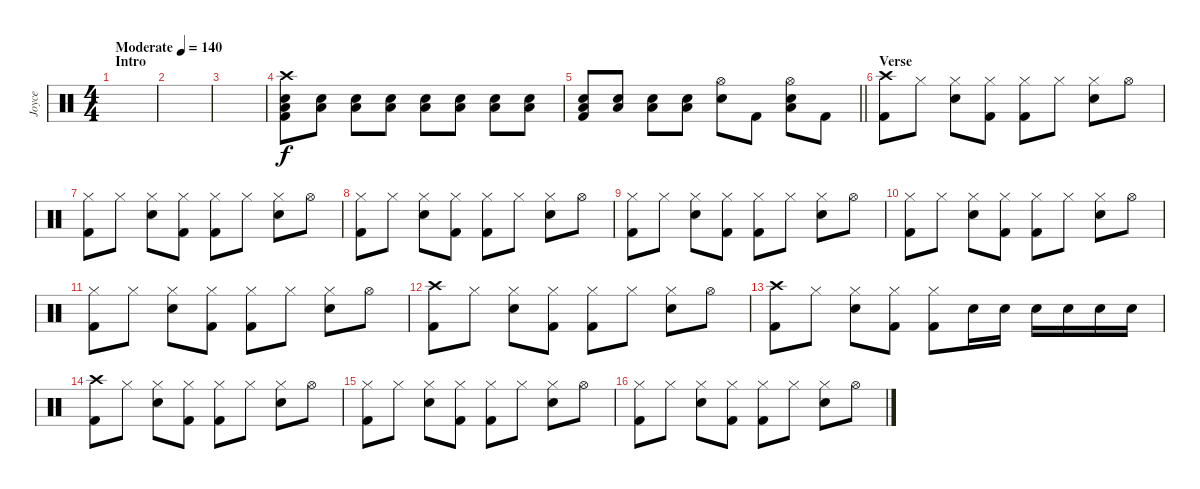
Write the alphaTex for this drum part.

\track ("Joyce" "Joyce") {instrument percussion}
\staff {score}
\articulation defaults
\ts (4 4)
\section ("" "Intro")
\tempo (140 "Moderate")
\clef neutral
\ks c
|
|
|
("Crash high (hit)" "Low Tom (hit)" "Snare (hit) 2" "Kick (hit) 2").8 ("Low Tom (hit)" "Snare (hit) 2").8 ("Low Tom (hit)" "Snare (hit) 2").8 ("Low Tom (hit)" "Snare (hit) 2").8 ("Low Tom (hit)" "Snare (hit) 2").8 ("Low Tom (hit)" "Snare (hit) 2").8 ("Low Tom (hit)" "Snare (hit) 2").8 ("Low Tom (hit)" "Snare (hit) 2").8 |
\barLineRight lightlight
("Low Tom (hit)" "Snare (hit) 2" "Kick (hit) 2").8 ("Low Tom (hit)" "Snare (hit) 2").8 ("Low Tom (hit)" "Snare (hit) 2").8 ("Low Tom (hit)" "Snare (hit) 2").8 ("Hi-Hat (open)" "Snare (hit) 2").8 "Kick (hit) 2".8 ("Hi-Hat (open)" "Low Tom (hit)" "Snare (hit) 2").8 "Kick (hit) 2".8 |
\section ("" "Verse")
("Crash high (hit)" "Kick (hit) 2").8 "Hi-Hat (closed)".8 ("Hi-Hat (closed)" "Snare (hit) 2").8 ("Hi-Hat (closed)" "Kick (hit) 2").8 ("Hi-Hat (closed)" "Kick (hit) 2").8 "Hi-Hat (closed)".8 ("Hi-Hat (closed)" "Snare (hit) 2").8 "Hi-Hat (open)".8 |
("Hi-Hat (closed)" "Kick (hit) 2").8 "Hi-Hat (closed)".8 ("Hi-Hat (closed)" "Snare (hit) 2").8 ("Hi-Hat (closed)" "Kick (hit) 2").8 ("Hi-Hat (closed)" "Kick (hit) 2").8 "Hi-Hat (closed)".8 ("Hi-Hat (closed)" "Snare (hit) 2").8 "Hi-Hat (open)".8 |
("Hi-Hat (closed)" "Kick (hit) 2").8 "Hi-Hat (closed)".8 ("Hi-Hat (closed)" "Snare (hit) 2").8 ("Hi-Hat (closed)" "Kick (hit) 2").8 ("Hi-Hat (closed)" "Kick (hit) 2").8 "Hi-Hat (closed)".8 ("Hi-Hat (closed)" "Snare (hit) 2").8 "Hi-Hat (open)".8 |
("Hi-Hat (closed)" "Kick (hit) 2").8 "Hi-Hat (closed)".8 ("Hi-Hat (closed)" "Snare (hit) 2").8 ("Hi-Hat (closed)" "Kick (hit) 2").8 ("Hi-Hat (closed)" "Kick (hit) 2").8 "Hi-Hat (closed)".8 ("Hi-Hat (closed)" "Snare (hit) 2").8 "Hi-Hat (open)".8 |
("Hi-Hat (closed)" "Kick (hit) 2").8 "Hi-Hat (closed)".8 ("Hi-Hat (closed)" "Snare (hit) 2").8 ("Hi-Hat (closed)" "Kick (hit) 2").8 ("Hi-Hat (closed)" "Kick (hit) 2").8 "Hi-Hat (closed)".8 ("Hi-Hat (closed)" "Snare (hit) 2").8 "Hi-Hat (open)".8 |
("Hi-Hat (closed)" "Kick (hit) 2").8 "Hi-Hat (closed)".8 ("Hi-Hat (closed)" "Snare (hit) 2").8 ("Hi-Hat (closed)" "Kick (hit) 2").8 ("Hi-Hat (closed)" "Kick (hit) 2").8 "Hi-Hat (closed)".8 ("Hi-Hat (closed)" "Snare (hit) 2").8 "Hi-Hat (open)".8 |
("Crash high (hit)" "Kick (hit) 2").8 "Hi-Hat (closed)".8 ("Hi-Hat (closed)" "Snare (hit) 2").8 ("Hi-Hat (closed)" "Kick (hit) 2").8 ("Hi-Hat (closed)" "Kick (hit) 2").8 "Hi-Hat (closed)".8 ("Hi-Hat (closed)" "Snare (hit) 2").8 "Hi-Hat (open)".8 |
("Crash high (hit)" "Kick (hit) 2").8 "Hi-Hat (closed)".8 ("Hi-Hat (closed)" "Snare (hit) 2").8 ("Hi-Hat (closed)" "Kick (hit) 2").8 ("Hi-Hat (closed)" "Kick (hit) 2").8 "Snare (hit) 2".16 "Snare (hit) 2".16 "Snare (hit) 2".16 "Snare (hit) 2".16 "Snare (hit) 2".16 "Snare (hit) 2".16 |
("Crash high (hit)" "Kick (hit) 2").8 "Hi-Hat (closed)".8 ("Hi-Hat (closed)" "Snare (hit) 2").8 ("Hi-Hat (closed)" "Kick (hit) 2").8 ("Hi-Hat (closed)" "Kick (hit) 2").8 "Hi-Hat (closed)".8 ("Hi-Hat (closed)" "Snare (hit) 2").8 "Hi-Hat (open)".8 |
("Hi-Hat (closed)" "Kick (hit) 2").8 "Hi-Hat (closed)".8 ("Hi-Hat (closed)" "Snare (hit) 2").8 ("Hi-Hat (closed)" "Kick (hit) 2").8 ("Hi-Hat (closed)" "Kick (hit) 2").8 "Hi-Hat (closed)".8 ("Hi-Hat (closed)" "Snare (hit) 2").8 "Hi-Hat (open)".8 |
("Hi-Hat (closed)" "Kick (hit) 2").8 "Hi-Hat (closed)".8 ("Hi-Hat (closed)" "Snare (hit) 2").8 ("Hi-Hat (closed)" "Kick (hit) 2").8 ("Hi-Hat (closed)" "Kick (hit) 2").8 "Hi-Hat (closed)".8 ("Hi-Hat (closed)" "Snare (hit) 2").8 "Hi-Hat (open)".8
